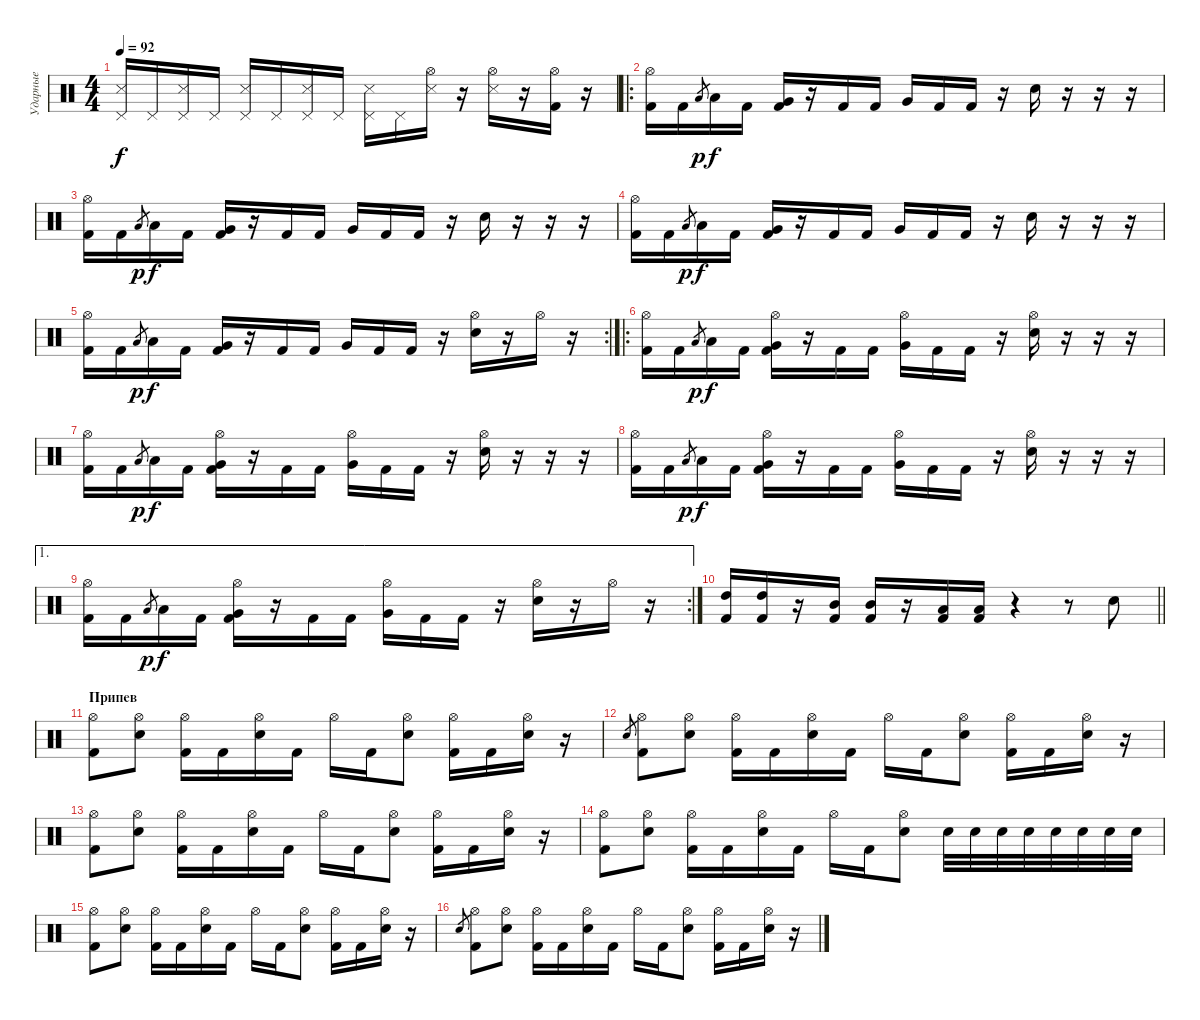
\track ("Ударные" "Ударные") {instrument percussion}
\staff {score}
\articulation defaults
\ts (4 4)
\tempo 92
\clef neutral
\ks c
("Pedal Hi-Hat (hit)" "Snare (side stick) 3").16{dy f} "Pedal Hi-Hat (hit)".16 ("Pedal Hi-Hat (hit)" "Snare (side stick) 3").16 "Pedal Hi-Hat (hit)".16 ("Pedal Hi-Hat (hit)" "Snare (side stick) 3").16 "Pedal Hi-Hat (hit)".16 ("Pedal Hi-Hat (hit)" "Snare (side stick) 3").16 "Pedal Hi-Hat (hit)".16 ("Pedal Hi-Hat (hit)" "Snare (side stick) 3").16 "Pedal Hi-Hat (hit)".16 ("Hi-Hat (open)" "Snare (side stick) 3").16 r.16 ("Hi-Hat (open)" "Snare (side stick) 3").16 r.16 ("Hi-Hat (open)" "Kick (hit) 2").16 r.16 |
\ro
("Kick (hit) 2" "Hi-Hat (open)").16 "Kick (hit) 2".16 "Low Tom (hit)".8{gr dy p} "Low Tom (hit)".16{dy f} "Kick (hit) 2".16 ("Kick (hit) 2" "Very Low Tom (hit)").16 r.16 "Kick (hit) 2".16 "Kick (hit) 2".16 "Very Low Tom (hit)".16 "Kick (hit) 2".16 "Kick (hit) 2".16 r.16 "Electric Snare (hit)".16 r.16 r.16 r.16 |
("Kick (hit) 2" "Hi-Hat (open)").16 "Kick (hit) 2".16 "Low Tom (hit)".8{gr dy p} "Low Tom (hit)".16{dy f} "Kick (hit) 2".16 ("Kick (hit) 2" "Very Low Tom (hit)").16 r.16 "Kick (hit) 2".16 "Kick (hit) 2".16 "Very Low Tom (hit)".16 "Kick (hit) 2".16 "Kick (hit) 2".16 r.16 "Electric Snare (hit)".16 r.16 r.16 r.16 |
("Kick (hit) 2" "Hi-Hat (open)").16 "Kick (hit) 2".16 "Low Tom (hit)".8{gr dy p} "Low Tom (hit)".16{dy f} "Kick (hit) 2".16 ("Kick (hit) 2" "Very Low Tom (hit)").16 r.16 "Kick (hit) 2".16 "Kick (hit) 2".16 "Very Low Tom (hit)".16 "Kick (hit) 2".16 "Kick (hit) 2".16 r.16 "Electric Snare (hit)".16 r.16 r.16 r.16 |
\rc 2
("Kick (hit) 2" "Hi-Hat (open)").16 "Kick (hit) 2".16 "Low Tom (hit)".8{gr dy p} "Low Tom (hit)".16{dy f} "Kick (hit) 2".16 ("Kick (hit) 2" "Very Low Tom (hit)").16 r.16 "Kick (hit) 2".16 "Kick (hit) 2".16 "Very Low Tom (hit)".16 "Kick (hit) 2".16 "Kick (hit) 2".16 r.16 ("Hi-Hat (open)" "Electric Snare (hit)").16 r.16 "Hi-Hat (open)".16 r.16 |
\ro
("Kick (hit) 2" "Hi-Hat (open)").16 "Kick (hit) 2".16 "Low Tom (hit)".8{gr dy p} "Low Tom (hit)".16{dy f} "Kick (hit) 2".16 ("Kick (hit) 2" "Very Low Tom (hit)" "Hi-Hat (open)").16 r.16 "Kick (hit) 2".16 "Kick (hit) 2".16 ("Very Low Tom (hit)" "Hi-Hat (open)").16 "Kick (hit) 2".16 "Kick (hit) 2".16 r.16 ("Electric Snare (hit)" "Hi-Hat (open)").16 r.16 r.16 r.16 |
("Kick (hit) 2" "Hi-Hat (open)").16 "Kick (hit) 2".16 "Low Tom (hit)".8{gr dy p} "Low Tom (hit)".16{dy f} "Kick (hit) 2".16 ("Kick (hit) 2" "Very Low Tom (hit)" "Hi-Hat (open)").16 r.16 "Kick (hit) 2".16 "Kick (hit) 2".16 ("Very Low Tom (hit)" "Hi-Hat (open)").16 "Kick (hit) 2".16 "Kick (hit) 2".16 r.16 ("Electric Snare (hit)" "Hi-Hat (open)").16 r.16 r.16 r.16 |
("Kick (hit) 2" "Hi-Hat (open)").16 "Kick (hit) 2".16 "Low Tom (hit)".8{gr dy p} "Low Tom (hit)".16{dy f} "Kick (hit) 2".16 ("Kick (hit) 2" "Very Low Tom (hit)" "Hi-Hat (open)").16 r.16 "Kick (hit) 2".16 "Kick (hit) 2".16 ("Very Low Tom (hit)" "Hi-Hat (open)").16 "Kick (hit) 2".16 "Kick (hit) 2".16 r.16 ("Electric Snare (hit)" "Hi-Hat (open)").16 r.16 r.16 r.16 |
\ae 1
\rc 2
("Kick (hit) 2" "Hi-Hat (open)").16 "Kick (hit) 2".16 "Low Tom (hit)".8{gr dy p} "Low Tom (hit)".16{dy f} "Kick (hit) 2".16 ("Kick (hit) 2" "Very Low Tom (hit)" "Hi-Hat (open)").16 r.16 "Kick (hit) 2".16 "Kick (hit) 2".16 ("Very Low Tom (hit)" "Hi-Hat (open)").16 "Kick (hit) 2".16 "Kick (hit) 2".16 r.16 ("Electric Snare (hit)" "Hi-Hat (open)").16 r.16 "Hi-Hat (open)".16 r.16 |
\barLineRight lightlight
("Kick (hit) 2" "High Tom (hit)").16 ("Kick (hit) 2" "High Tom (hit)").16 r.16 ("Kick (hit) 2" "Mid Tom (hit)").16 ("Kick (hit) 2" "Mid Tom (hit)").16 r.16 ("Kick (hit) 2" "Low Tom (hit)").16 ("Kick (hit) 2" "Low Tom (hit)").16 r.4 r.8 "Electric Snare (hit)".8 |
\section ("" "Припев")
("Hi-Hat (open)" "Kick (hit) 2").8 ("Hi-Hat (open)" "Electric Snare (hit)").8 ("Hi-Hat (open)" "Kick (hit) 2").16 "Kick (hit) 2".16 ("Hi-Hat (open)" "Electric Snare (hit)").16 "Kick (hit) 2".16 "Hi-Hat (open)".16 "Kick (hit) 2".16 ("Hi-Hat (open)" "Electric Snare (hit)").8 ("Hi-Hat (open)" "Kick (hit) 2").16 "Kick (hit) 2".16 ("Hi-Hat (open)" "Electric Snare (hit)").16 r.16 |
"Electric Snare (hit)".8{gr} ("Hi-Hat (open)" "Kick (hit) 2").8 ("Hi-Hat (open)" "Electric Snare (hit)").8 ("Hi-Hat (open)" "Kick (hit) 2").16 "Kick (hit) 2".16 ("Hi-Hat (open)" "Electric Snare (hit)").16 "Kick (hit) 2".16 "Hi-Hat (open)".16 "Kick (hit) 2".16 ("Hi-Hat (open)" "Electric Snare (hit)").8 ("Hi-Hat (open)" "Kick (hit) 2").16 "Kick (hit) 2".16 ("Hi-Hat (open)" "Electric Snare (hit)").16 r.16 |
("Hi-Hat (open)" "Kick (hit) 2").8 ("Hi-Hat (open)" "Electric Snare (hit)").8 ("Hi-Hat (open)" "Kick (hit) 2").16 "Kick (hit) 2".16 ("Hi-Hat (open)" "Electric Snare (hit)").16 "Kick (hit) 2".16 "Hi-Hat (open)".16 "Kick (hit) 2".16 ("Hi-Hat (open)" "Electric Snare (hit)").8 ("Hi-Hat (open)" "Kick (hit) 2").16 "Kick (hit) 2".16 ("Hi-Hat (open)" "Electric Snare (hit)").16 r.16 |
("Hi-Hat (open)" "Kick (hit) 2").8 ("Hi-Hat (open)" "Electric Snare (hit)").8 ("Hi-Hat (open)" "Kick (hit) 2").16 "Kick (hit) 2".16 ("Hi-Hat (open)" "Electric Snare (hit)").16 "Kick (hit) 2".16 "Hi-Hat (open)".16 "Kick (hit) 2".16 ("Hi-Hat (open)" "Electric Snare (hit)").8 "Snare (hit) 2".32 "Snare (hit) 2".32 "Snare (hit) 2".32 "Snare (hit) 2".32 "Snare (hit) 2".32 "Snare (hit) 2".32 "Snare (hit) 2".32 "Snare (hit) 2".32 |
("Hi-Hat (open)" "Kick (hit) 2").8 ("Hi-Hat (open)" "Electric Snare (hit)").8 ("Hi-Hat (open)" "Kick (hit) 2").16 "Kick (hit) 2".16 ("Hi-Hat (open)" "Electric Snare (hit)").16 "Kick (hit) 2".16 "Hi-Hat (open)".16 "Kick (hit) 2".16 ("Hi-Hat (open)" "Electric Snare (hit)").8 ("Hi-Hat (open)" "Kick (hit) 2").16 "Kick (hit) 2".16 ("Hi-Hat (open)" "Electric Snare (hit)").16 r.16 |
"Electric Snare (hit)".8{gr} ("Hi-Hat (open)" "Kick (hit) 2").8 ("Hi-Hat (open)" "Electric Snare (hit)").8 ("Hi-Hat (open)" "Kick (hit) 2").16 "Kick (hit) 2".16 ("Hi-Hat (open)" "Electric Snare (hit)").16 "Kick (hit) 2".16 "Hi-Hat (open)".16 "Kick (hit) 2".16 ("Hi-Hat (open)" "Electric Snare (hit)").8 ("Hi-Hat (open)" "Kick (hit) 2").16 "Kick (hit) 2".16 ("Hi-Hat (open)" "Electric Snare (hit)").16 r.16
